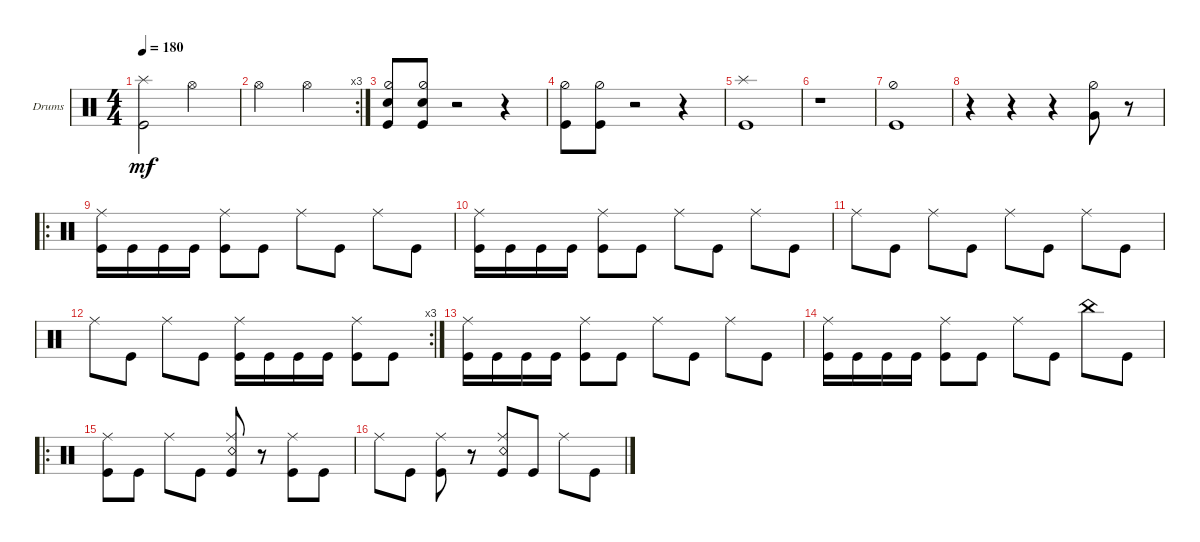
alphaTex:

\defaultSystemsLayout 4
\bracketExtendMode groupsimilarinstruments
\firstSystemTrackNameOrientation horizontal
\otherSystemsTrackNameOrientation horizontal
\track ("Drumkit" "Drums") {instrument percussion}
\staff {score}
\articulation defaults
\ts (4 4)
\tempo 180
\clef neutral
\ks c
("Kick (hit)" "Splash (hit)").2{dy mf} "Hi-Hat (open)".2 |
\rc 3 "Hi-Hat (open)".2 "Hi-Hat (open)".2
|
("Hi-Hat (half)" "Snare (hit) 2" "Kick (hit)").8 ("Hi-Hat (half)" "Snare (hit) 2" "Kick (hit)").8 r.2 r.4 |
("Hi-Hat (half)" "Kick (hit)").8 ("Hi-Hat (half)" "Kick (hit)").8 r.2 r.4 |
("Kick (hit)" "Splash (hit)").1 |
r.1 |
("Kick (hit)" "Hi-Hat (half)").1 |
r.4 r.4 r.4 ("Hi-Hat (half)" "Very Low Tom (hit)").8 r.8 |
\ro
("Kick (hit)" "Ride (middle)").16 "Kick (hit)".16 "Kick (hit)".16 "Kick (hit)".16 ("Kick (hit)" "Ride (middle)").8 "Kick (hit)".8 "Ride (middle)".8 "Kick (hit)".8 "Ride (middle)".8 "Kick (hit)".8 |
("Kick (hit)" "Ride (middle)").16 "Kick (hit)".16 "Kick (hit)".16 "Kick (hit)".16 ("Kick (hit)" "Ride (middle)").8 "Kick (hit)".8 "Ride (middle)".8 "Kick (hit)".8 "Ride (middle)".8 "Kick (hit)".8 |
"Ride (middle)".8 "Kick (hit)".8 "Ride (middle)".8 "Kick (hit)".8 "Ride (middle)".8 "Kick (hit)".8 "Ride (middle)".8 "Kick (hit)".8 |
\rc 3 "Ride (middle)".8 "Kick (hit)".8 "Ride (middle)".8 "Kick (hit)".8
("Kick (hit)" "Ride (middle)").16 "Kick (hit)".16 "Kick (hit)".16 "Kick (hit)".16 ("Kick (hit)" "Ride (middle)").8 "Kick (hit)".8 |
("Kick (hit)" "Ride (middle)").16 "Kick (hit)".16 "Kick (hit)".16 "Kick (hit)".16 ("Kick (hit)" "Ride (middle)").8 "Kick (hit)".8 "Ride (middle)".8 "Kick (hit)".8 "Ride (middle)".8 "Kick (hit)".8 |
("Kick (hit)" "Ride (middle)").16 "Kick (hit)".16 "Kick (hit)".16 "Kick (hit)".16 ("Kick (hit)" "Ride (middle)").8 "Kick (hit)".8 "Ride (middle)".8 "Kick (hit)".8 "China (hit)".8 "Kick (hit)".8 |
\ro
("Kick (hit)" "Ride (middle)").8 "Kick (hit)".8 "Ride (middle)".8 "Kick (hit)".8 ("Kick (hit)" "Ride (middle)" "Snare (rim shot)").8 r.8 ("Kick (hit)" "Ride (middle)").8 "Kick (hit)".8 |
"Ride (middle)".8 "Kick (hit)".8 ("Kick (hit)" "Ride (middle)").8 r.8 ("Kick (hit)" "Ride (middle)" "Snare (rim shot)").8 "Kick (hit)".8 "Ride (middle)".8 "Kick (hit)".8
